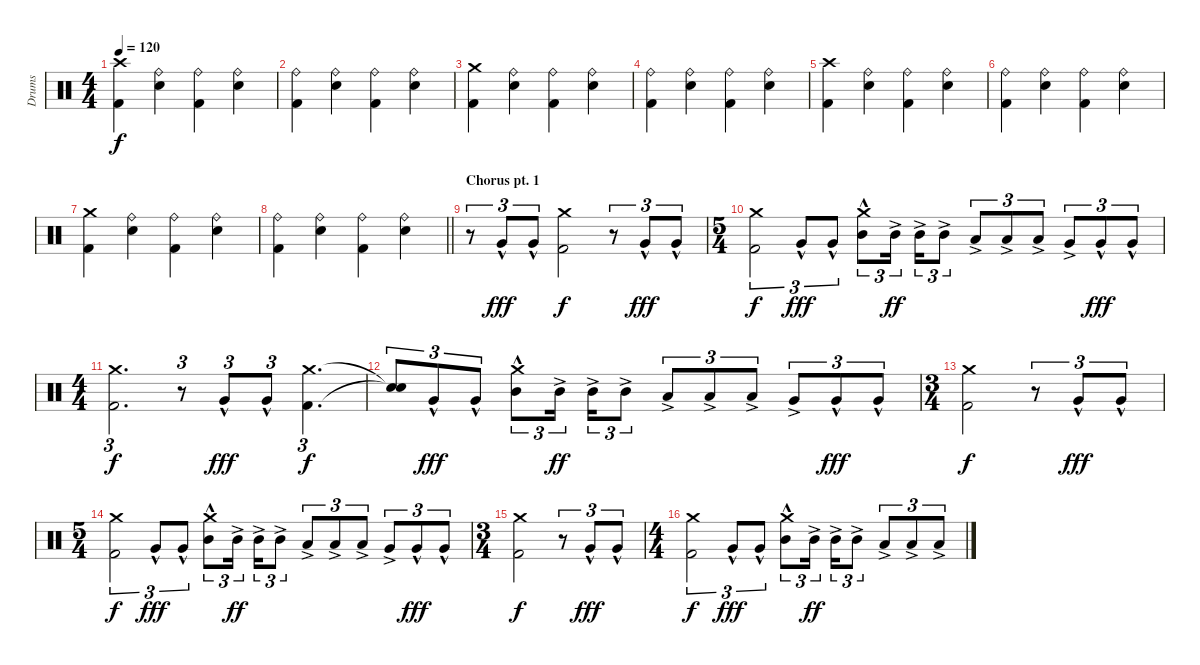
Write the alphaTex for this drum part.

\track ("Drums" "Drums") {instrument percussion}
\staff {score}
\articulation defaults
\ts (4 4)
\tempo 120
\clef neutral
\ks c
("Crash high (hit)" "Kick (hit) 2").4{dy f} ("Ride (bell)" "Snare (hit) 2").4 ("Ride (bell)" "Kick (hit) 2").4 ("Ride (bell)" "Snare (hit) 2").4 |
("Ride (bell)" "Kick (hit) 2").4 ("Ride (bell)" "Snare (hit) 2").4 ("Ride (bell)" "Kick (hit) 2").4 ("Ride (bell)" "Snare (hit) 2").4 |
("Crash medium (hit)" "Kick (hit) 2").4 ("Ride (bell)" "Snare (hit) 2").4 ("Ride (bell)" "Kick (hit) 2").4 ("Ride (bell)" "Snare (hit) 2").4 |
("Ride (bell)" "Kick (hit) 2").4 ("Ride (bell)" "Snare (hit) 2").4 ("Ride (bell)" "Kick (hit) 2").4 ("Ride (bell)" "Snare (hit) 2").4 |
("Crash high (hit)" "Kick (hit) 2").4 ("Ride (bell)" "Snare (hit) 2").4 ("Ride (bell)" "Kick (hit) 2").4 ("Ride (bell)" "Snare (hit) 2").4 |
("Ride (bell)" "Kick (hit) 2").4 ("Ride (bell)" "Snare (hit) 2").4 ("Ride (bell)" "Kick (hit) 2").4 ("Ride (bell)" "Snare (hit) 2").4 |
("Crash medium (hit)" "Kick (hit) 2").4 ("Ride (bell)" "Snare (hit) 2").4 ("Ride (bell)" "Kick (hit) 2").4 ("Ride (bell)" "Snare (hit) 2").4 |
\barLineRight lightlight
("Ride (bell)" "Kick (hit) 2").4 ("Ride (bell)" "Snare (hit) 2").4 ("Ride (bell)" "Kick (hit) 2").4 ("Ride (bell)" "Snare (hit) 2").4 |
\section ("" "Chorus pt. 1")
r.8{tu (3 2)} "Very Low Tom (hit)"{hac}.8{tu (3 2) dy fff} "Very Low Tom (hit)"{hac}.8{tu (3 2)} ("Crash medium (hit)" "Kick (hit) 2").2{dy f} r.8{tu (3 2)} "Very Low Tom (hit)"{hac}.8{tu (3 2) dy fff} "Very Low Tom (hit)"{hac}.8{tu (3 2)} |
\ts (5 4)
("Crash medium (hit)" "Kick (hit) 2").2{tu (3 2) dy f} "Very Low Tom (hit)"{hac}.8{tu (3 2) dy fff} "Very Low Tom (hit)"{hac}.8{tu (3 2)} ("Crash medium (hit)" "Mid Tom (hit)"{hac}).8{tu (3 2)} "Mid Tom (hit)"{ac}.16{tu (3 2) dy ff beam splitsecondary} "Mid Tom (hit)"{ac}.16{tu (3 2)} "Mid Tom (hit)"{ac}.8{tu (3 2)} "Low Tom (hit)"{ac}.8{tu (3 2)} "Low Tom (hit)"{ac}.8{tu (3 2)} "Low Tom (hit)"{ac}.8{tu (3 2)} "Very Low Tom (hit)"{ac}.8{tu (3 2)} "Very Low Tom (hit)"{hac}.8{tu (3 2) dy fff} "Very Low Tom (hit)"{hac}.8{tu (3 2)} |
\ts (4 4)
("Crash medium (hit)" "Kick (hit) 2").2{d tu (3 2) dy f} r.8{tu (3 2)} "Very Low Tom (hit)"{hac}.8{tu (3 2) dy fff} "Very Low Tom (hit)"{hac}.8{tu (3 2)} ("Crash medium (hit)" "Kick (hit) 2").4{d tu (3 2) dy f} |
("Snare (hit)"{t} "Snare (hit)"{t}).8{tu (3 2)} "Very Low Tom (hit)"{hac}.8{tu (3 2) dy fff} "Very Low Tom (hit)"{hac}.8{tu (3 2)} ("Crash medium (hit)" "Mid Tom (hit)"{hac}).8{tu (3 2)} "Mid Tom (hit)"{ac}.16{tu (3 2) dy ff beam splitsecondary} "Mid Tom (hit)"{ac}.16{tu (3 2)} "Mid Tom (hit)"{ac}.8{tu (3 2)} "Low Tom (hit)"{ac}.8{tu (3 2)} "Low Tom (hit)"{ac}.8{tu (3 2)} "Low Tom (hit)"{ac}.8{tu (3 2)} "Very Low Tom (hit)"{ac}.8{tu (3 2)} "Very Low Tom (hit)"{hac}.8{tu (3 2) dy fff} "Very Low Tom (hit)"{hac}.8{tu (3 2)} |
\ts (3 4)
("Crash medium (hit)" "Kick (hit) 2").2{dy f} r.8{tu (3 2)} "Very Low Tom (hit)"{hac}.8{tu (3 2) dy fff} "Very Low Tom (hit)"{hac}.8{tu (3 2)} |
\ts (5 4)
("Crash medium (hit)" "Kick (hit) 2").2{tu (3 2) dy f} "Very Low Tom (hit)"{hac}.8{tu (3 2) dy fff} "Very Low Tom (hit)"{hac}.8{tu (3 2)} ("Crash medium (hit)" "Mid Tom (hit)"{hac}).8{tu (3 2)} "Mid Tom (hit)"{ac}.16{tu (3 2) dy ff beam splitsecondary} "Mid Tom (hit)"{ac}.16{tu (3 2)} "Mid Tom (hit)"{ac}.8{tu (3 2)} "Low Tom (hit)"{ac}.8{tu (3 2)} "Low Tom (hit)"{ac}.8{tu (3 2)} "Low Tom (hit)"{ac}.8{tu (3 2)} "Very Low Tom (hit)"{ac}.8{tu (3 2)} "Very Low Tom (hit)"{hac}.8{tu (3 2) dy fff} "Very Low Tom (hit)"{hac}.8{tu (3 2)} |
\ts (3 4)
("Crash medium (hit)" "Kick (hit) 2").2{dy f} r.8{tu (3 2)} "Very Low Tom (hit)"{hac}.8{tu (3 2) dy fff} "Very Low Tom (hit)"{hac}.8{tu (3 2)} |
\ts (4 4)
("Crash medium (hit)" "Kick (hit) 2").2{tu (3 2) dy f} "Very Low Tom (hit)"{hac}.8{tu (3 2) dy fff} "Very Low Tom (hit)"{hac}.8{tu (3 2)} ("Crash medium (hit)" "Mid Tom (hit)"{hac}).8{tu (3 2)} "Mid Tom (hit)"{ac}.16{tu (3 2) dy ff beam splitsecondary} "Mid Tom (hit)"{ac}.16{tu (3 2)} "Mid Tom (hit)"{ac}.8{tu (3 2)} "Low Tom (hit)"{ac}.8{tu (3 2)} "Low Tom (hit)"{ac}.8{tu (3 2)} "Low Tom (hit)"{ac}.8{tu (3 2)}
